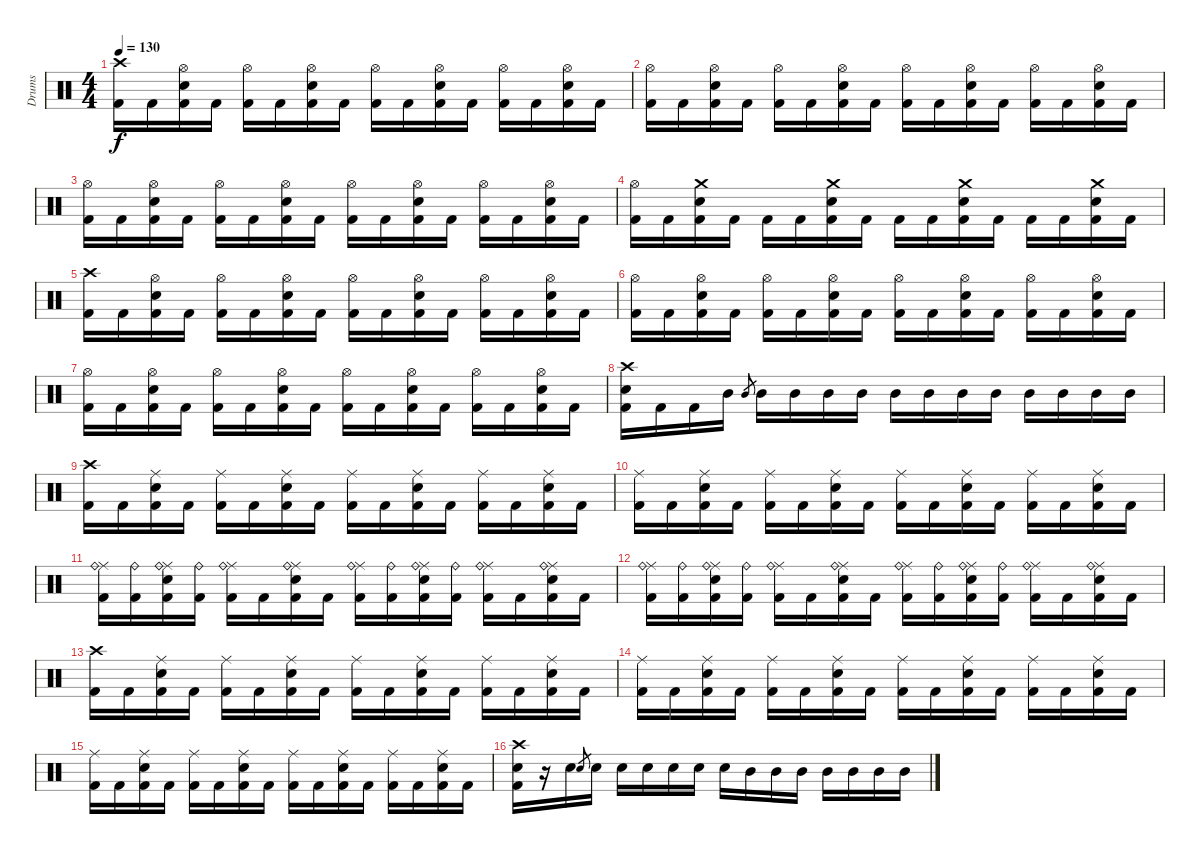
\track ("Drums" "Drums") {instrument percussion}
\staff {score}
\articulation defaults
\ts (4 4)
\tempo 130
\clef neutral
\ks c
("Crash high (hit)" "Kick (hit) 2").16{dy f} "Kick (hit) 2".16 ("Hi-Hat (open)" "Electric Snare (hit)" "Kick (hit) 2").16 "Kick (hit) 2".16 ("Hi-Hat (open)" "Kick (hit) 2").16 "Kick (hit) 2".16 ("Hi-Hat (open)" "Electric Snare (hit)" "Kick (hit) 2").16 "Kick (hit) 2".16 ("Hi-Hat (open)" "Kick (hit) 2").16 "Kick (hit) 2".16 ("Hi-Hat (open)" "Electric Snare (hit)" "Kick (hit) 2").16 "Kick (hit) 2".16 ("Hi-Hat (open)" "Kick (hit) 2").16 "Kick (hit) 2".16 ("Hi-Hat (open)" "Electric Snare (hit)" "Kick (hit) 2").16 "Kick (hit) 2".16 |
("Hi-Hat (open)" "Kick (hit) 2").16 "Kick (hit) 2".16 ("Hi-Hat (open)" "Electric Snare (hit)" "Kick (hit) 2").16 "Kick (hit) 2".16 ("Hi-Hat (open)" "Kick (hit) 2").16 "Kick (hit) 2".16 ("Hi-Hat (open)" "Electric Snare (hit)" "Kick (hit) 2").16 "Kick (hit) 2".16 ("Hi-Hat (open)" "Kick (hit) 2").16 "Kick (hit) 2".16 ("Hi-Hat (open)" "Electric Snare (hit)" "Kick (hit) 2").16 "Kick (hit) 2".16 ("Hi-Hat (open)" "Kick (hit) 2").16 "Kick (hit) 2".16 ("Hi-Hat (open)" "Electric Snare (hit)" "Kick (hit) 2").16 "Kick (hit) 2".16 |
("Hi-Hat (open)" "Kick (hit) 2").16 "Kick (hit) 2".16 ("Hi-Hat (open)" "Electric Snare (hit)" "Kick (hit) 2").16 "Kick (hit) 2".16 ("Hi-Hat (open)" "Kick (hit) 2").16 "Kick (hit) 2".16 ("Hi-Hat (open)" "Electric Snare (hit)" "Kick (hit) 2").16 "Kick (hit) 2".16 ("Hi-Hat (open)" "Kick (hit) 2").16 "Kick (hit) 2".16 ("Hi-Hat (open)" "Electric Snare (hit)" "Kick (hit) 2").16 "Kick (hit) 2".16 ("Hi-Hat (open)" "Kick (hit) 2").16 "Kick (hit) 2".16 ("Hi-Hat (open)" "Electric Snare (hit)" "Kick (hit) 2").16 "Kick (hit) 2".16 |
("Hi-Hat (open)" "Kick (hit) 2").16 "Kick (hit) 2".16 ("Crash medium (hit)" "Electric Snare (hit)" "Kick (hit) 2").16 "Kick (hit) 2".16 "Kick (hit) 2".16 "Kick (hit) 2".16 ("Crash medium (hit)" "Electric Snare (hit)" "Kick (hit) 2").16 "Kick (hit) 2".16 "Kick (hit) 2".16 "Kick (hit) 2".16 ("Crash medium (hit)" "Electric Snare (hit)" "Kick (hit) 2").16 "Kick (hit) 2".16 "Kick (hit) 2".16 "Kick (hit) 2".16 ("Crash medium (hit)" "Electric Snare (hit)" "Kick (hit) 2").16 "Kick (hit) 2".16 |
("Crash high (hit)" "Kick (hit) 2").16 "Kick (hit) 2".16 ("Hi-Hat (open)" "Electric Snare (hit)" "Kick (hit) 2").16 "Kick (hit) 2".16 ("Hi-Hat (open)" "Kick (hit) 2").16 "Kick (hit) 2".16 ("Hi-Hat (open)" "Electric Snare (hit)" "Kick (hit) 2").16 "Kick (hit) 2".16 ("Hi-Hat (open)" "Kick (hit) 2").16 "Kick (hit) 2".16 ("Hi-Hat (open)" "Electric Snare (hit)" "Kick (hit) 2").16 "Kick (hit) 2".16 ("Hi-Hat (open)" "Kick (hit) 2").16 "Kick (hit) 2".16 ("Hi-Hat (open)" "Electric Snare (hit)" "Kick (hit) 2").16 "Kick (hit) 2".16 |
("Hi-Hat (open)" "Kick (hit) 2").16 "Kick (hit) 2".16 ("Hi-Hat (open)" "Electric Snare (hit)" "Kick (hit) 2").16 "Kick (hit) 2".16 ("Hi-Hat (open)" "Kick (hit) 2").16 "Kick (hit) 2".16 ("Hi-Hat (open)" "Electric Snare (hit)" "Kick (hit) 2").16 "Kick (hit) 2".16 ("Hi-Hat (open)" "Kick (hit) 2").16 "Kick (hit) 2".16 ("Hi-Hat (open)" "Electric Snare (hit)" "Kick (hit) 2").16 "Kick (hit) 2".16 ("Hi-Hat (open)" "Kick (hit) 2").16 "Kick (hit) 2".16 ("Hi-Hat (open)" "Electric Snare (hit)" "Kick (hit) 2").16 "Kick (hit) 2".16 |
("Hi-Hat (open)" "Kick (hit) 2").16 "Kick (hit) 2".16 ("Hi-Hat (open)" "Electric Snare (hit)" "Kick (hit) 2").16 "Kick (hit) 2".16 ("Hi-Hat (open)" "Kick (hit) 2").16 "Kick (hit) 2".16 ("Hi-Hat (open)" "Electric Snare (hit)" "Kick (hit) 2").16 "Kick (hit) 2".16 ("Hi-Hat (open)" "Kick (hit) 2").16 "Kick (hit) 2".16 ("Hi-Hat (open)" "Electric Snare (hit)" "Kick (hit) 2").16 "Kick (hit) 2".16 ("Hi-Hat (open)" "Kick (hit) 2").16 "Kick (hit) 2".16 ("Hi-Hat (open)" "Electric Snare (hit)" "Kick (hit) 2").16 "Kick (hit) 2".16 |
("Crash high (hit)" "Electric Snare (hit)" "Kick (hit) 2").16 "Kick (hit) 2".16 "Kick (hit) 2".16 "Mid Tom (hit)".16 "Mid Tom (hit)".8{gr} "Mid Tom (hit)".16 "Mid Tom (hit)".16 "Mid Tom (hit)".16 "Mid Tom (hit)".16 "Mid Tom (hit)".16 "Mid Tom (hit)".16 "Mid Tom (hit)".16 "Mid Tom (hit)".16 "Mid Tom (hit)".16 "Mid Tom (hit)".16 "Mid Tom (hit)".16 "Mid Tom (hit)".16 |
("Crash high (hit)" "Kick (hit) 2").16 "Kick (hit) 2".16 ("Ride (middle)" "Electric Snare (hit)" "Kick (hit) 2").16 "Kick (hit) 2".16 ("Ride (middle)" "Kick (hit) 2").16 "Kick (hit) 2".16 ("Ride (middle)" "Electric Snare (hit)" "Kick (hit) 2").16 "Kick (hit) 2".16 ("Ride (middle)" "Kick (hit) 2").16 "Kick (hit) 2".16 ("Ride (middle)" "Electric Snare (hit)" "Kick (hit) 2").16 "Kick (hit) 2".16 ("Ride (middle)" "Kick (hit) 2").16 "Kick (hit) 2".16 ("Ride (middle)" "Electric Snare (hit)" "Kick (hit) 2").16 "Kick (hit) 2".16 |
("Ride (middle)" "Kick (hit) 2").16 "Kick (hit) 2".16 ("Ride (middle)" "Electric Snare (hit)" "Kick (hit) 2").16 "Kick (hit) 2".16 ("Ride (middle)" "Kick (hit) 2").16 "Kick (hit) 2".16 ("Ride (middle)" "Electric Snare (hit)" "Kick (hit) 2").16 "Kick (hit) 2".16 ("Ride (middle)" "Kick (hit) 2").16 "Kick (hit) 2".16 ("Ride (middle)" "Electric Snare (hit)" "Kick (hit) 2").16 "Kick (hit) 2".16 ("Ride (middle)" "Kick (hit) 2").16 "Kick (hit) 2".16 ("Ride (middle)" "Electric Snare (hit)" "Kick (hit) 2").16 "Kick (hit) 2".16 |
("Ride (middle)" "Ride (bell)" "Kick (hit) 2").16 ("Ride (bell)" "Kick (hit) 2").16 ("Ride (middle)" "Ride (bell)" "Electric Snare (hit)" "Kick (hit) 2").16 ("Ride (bell)" "Kick (hit) 2").16 ("Ride (middle)" "Ride (bell)" "Kick (hit) 2").16 "Kick (hit) 2".16 ("Ride (middle)" "Ride (bell)" "Electric Snare (hit)" "Kick (hit) 2").16 "Kick (hit) 2".16 ("Ride (middle)" "Ride (bell)" "Kick (hit) 2").16 ("Ride (bell)" "Kick (hit) 2").16 ("Ride (middle)" "Ride (bell)" "Electric Snare (hit)" "Kick (hit) 2").16 ("Ride (bell)" "Kick (hit) 2").16 ("Ride (middle)" "Ride (bell)" "Kick (hit) 2").16 "Kick (hit) 2".16 ("Ride (middle)" "Ride (bell)" "Electric Snare (hit)" "Kick (hit) 2").16 "Kick (hit) 2".16 |
("Ride (middle)" "Ride (bell)" "Kick (hit) 2").16 ("Ride (bell)" "Kick (hit) 2").16 ("Ride (middle)" "Ride (bell)" "Electric Snare (hit)" "Kick (hit) 2").16 ("Ride (bell)" "Kick (hit) 2").16 ("Ride (middle)" "Ride (bell)" "Kick (hit) 2").16 "Kick (hit) 2".16 ("Ride (middle)" "Ride (bell)" "Electric Snare (hit)" "Kick (hit) 2").16 "Kick (hit) 2".16 ("Ride (middle)" "Ride (bell)" "Kick (hit) 2").16 ("Ride (bell)" "Kick (hit) 2").16 ("Ride (middle)" "Ride (bell)" "Electric Snare (hit)" "Kick (hit) 2").16 ("Ride (bell)" "Kick (hit) 2").16 ("Ride (middle)" "Ride (bell)" "Kick (hit) 2").16 "Kick (hit) 2".16 ("Ride (middle)" "Ride (bell)" "Electric Snare (hit)" "Kick (hit) 2").16 "Kick (hit) 2".16 |
("Crash high (hit)" "Kick (hit) 2").16 "Kick (hit) 2".16 ("Ride (middle)" "Electric Snare (hit)" "Kick (hit) 2").16 "Kick (hit) 2".16 ("Ride (middle)" "Kick (hit) 2").16 "Kick (hit) 2".16 ("Ride (middle)" "Electric Snare (hit)" "Kick (hit) 2").16 "Kick (hit) 2".16 ("Ride (middle)" "Kick (hit) 2").16 "Kick (hit) 2".16 ("Ride (middle)" "Electric Snare (hit)" "Kick (hit) 2").16 "Kick (hit) 2".16 ("Ride (middle)" "Kick (hit) 2").16 "Kick (hit) 2".16 ("Ride (middle)" "Electric Snare (hit)" "Kick (hit) 2").16 "Kick (hit) 2".16 |
("Ride (middle)" "Kick (hit) 2").16 "Kick (hit) 2".16 ("Ride (middle)" "Electric Snare (hit)" "Kick (hit) 2").16 "Kick (hit) 2".16 ("Ride (middle)" "Kick (hit) 2").16 "Kick (hit) 2".16 ("Ride (middle)" "Electric Snare (hit)" "Kick (hit) 2").16 "Kick (hit) 2".16 ("Ride (middle)" "Kick (hit) 2").16 "Kick (hit) 2".16 ("Ride (middle)" "Electric Snare (hit)" "Kick (hit) 2").16 "Kick (hit) 2".16 ("Ride (middle)" "Kick (hit) 2").16 "Kick (hit) 2".16 ("Ride (middle)" "Electric Snare (hit)" "Kick (hit) 2").16 "Kick (hit) 2".16 |
("Ride (middle)" "Kick (hit) 2").16 "Kick (hit) 2".16 ("Ride (middle)" "Electric Snare (hit)" "Kick (hit) 2").16 "Kick (hit) 2".16 ("Ride (middle)" "Kick (hit) 2").16 "Kick (hit) 2".16 ("Ride (middle)" "Electric Snare (hit)" "Kick (hit) 2").16 "Kick (hit) 2".16 ("Ride (middle)" "Kick (hit) 2").16 "Kick (hit) 2".16 ("Ride (middle)" "Electric Snare (hit)" "Kick (hit) 2").16 "Kick (hit) 2".16 ("Ride (middle)" "Kick (hit) 2").16 "Kick (hit) 2".16 ("Ride (middle)" "Electric Snare (hit)" "Kick (hit) 2").16 "Kick (hit) 2".16 |
("Crash high (hit)" "Electric Snare (hit)" "Kick (hit) 2").16 r.16 "Electric Snare (hit)".16 "Electric Snare (hit)".8{gr} "Electric Snare (hit)".16 "Electric Snare (hit)".16 "Electric Snare (hit)".16 "Electric Snare (hit)".16 "Electric Snare (hit)".16 "Electric Snare (hit)".16 "Mid Tom (hit)".16 "Mid Tom (hit)".16 "Mid Tom (hit)".16 "Mid Tom (hit)".16 "Mid Tom (hit)".16 "Mid Tom (hit)".16 "Mid Tom (hit)".16
